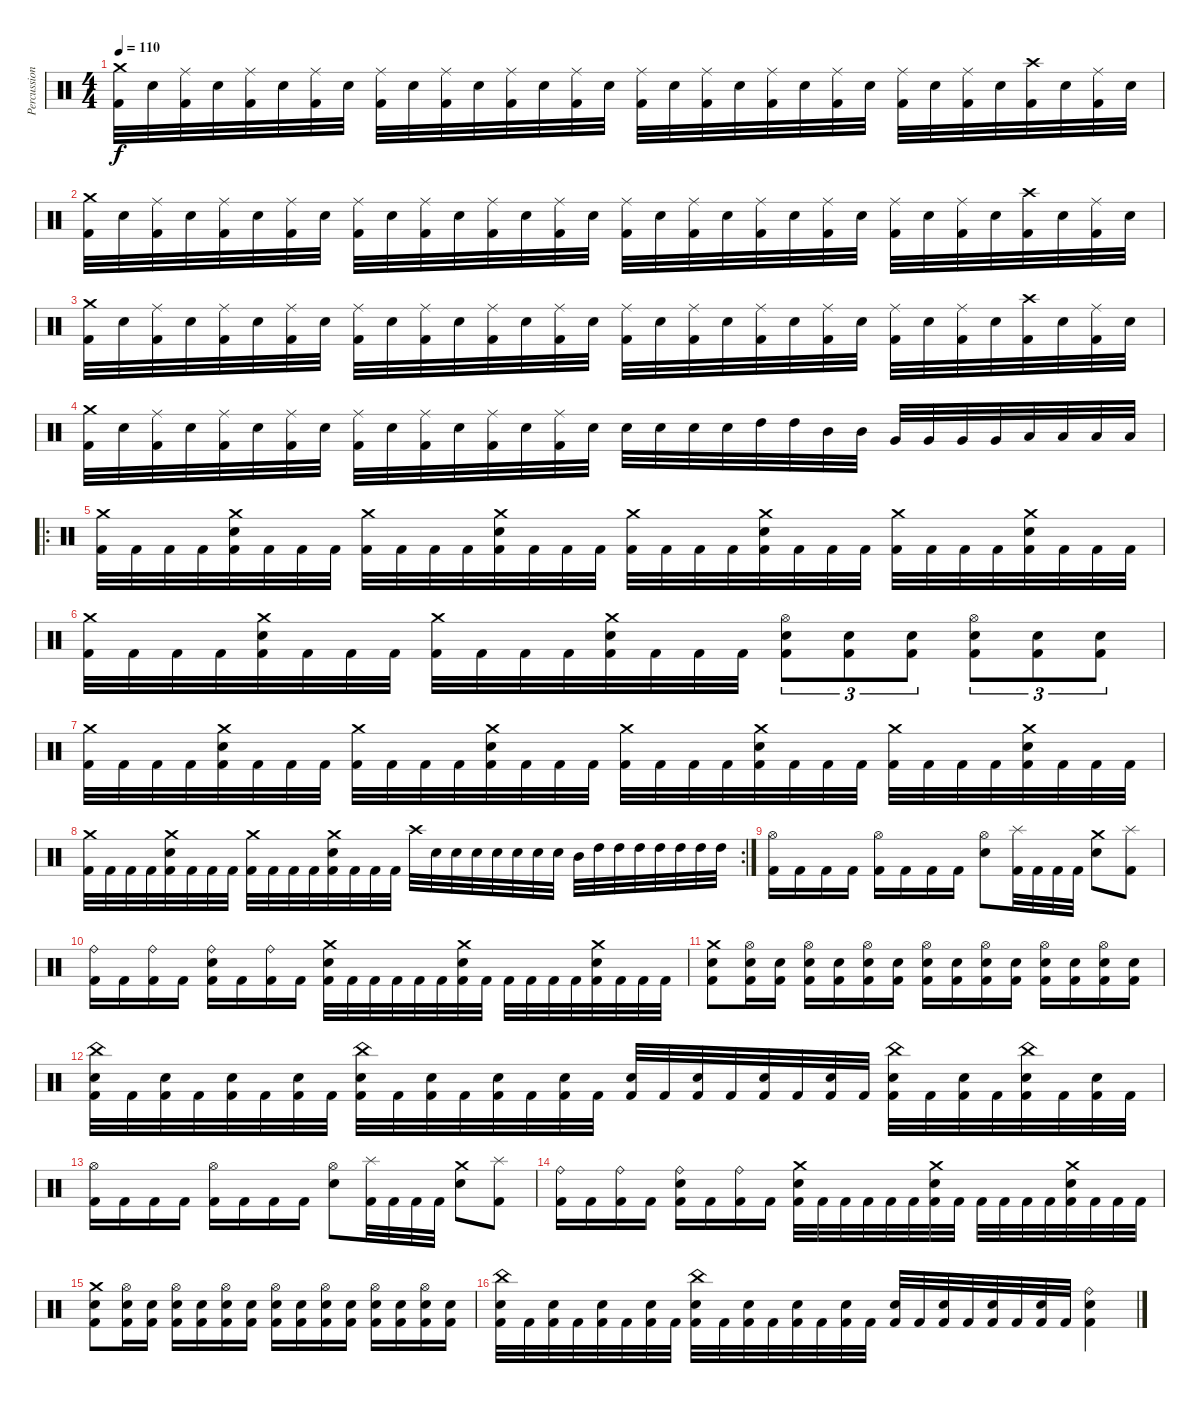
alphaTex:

\track ("Percussion" "Percussion") {instrument percussion}
\staff {score}
\articulation defaults
\ts (4 4)
\tempo 110
\clef neutral
\ks c
("Crash medium (hit)" "Kick (hit) 2").32{dy f} "Electric Snare (hit)".32 ("Ride (middle)" "Kick (hit) 2").32 "Electric Snare (hit)".32 ("Ride (middle)" "Kick (hit) 2").32 "Electric Snare (hit)".32 ("Ride (middle)" "Kick (hit) 2").32 "Electric Snare (hit)".32 ("Ride (middle)" "Kick (hit) 2").32 "Electric Snare (hit)".32 ("Ride (middle)" "Kick (hit) 2").32 "Electric Snare (hit)".32 ("Ride (middle)" "Kick (hit) 2").32 "Electric Snare (hit)".32 ("Ride (middle)" "Kick (hit) 2").32 "Electric Snare (hit)".32 ("Ride (middle)" "Kick (hit) 2").32 "Electric Snare (hit)".32 ("Ride (middle)" "Kick (hit) 2").32 "Electric Snare (hit)".32 ("Ride (middle)" "Kick (hit) 2").32 "Electric Snare (hit)".32 ("Ride (middle)" "Kick (hit) 2").32 "Electric Snare (hit)".32 ("Ride (middle)" "Kick (hit) 2").32 "Electric Snare (hit)".32 ("Ride (middle)" "Kick (hit) 2").32 "Electric Snare (hit)".32 ("Crash high (hit)" "Kick (hit) 2").32 "Electric Snare (hit)".32 ("Ride (middle)" "Kick (hit) 2").32 "Electric Snare (hit)".32 |
("Crash medium (hit)" "Kick (hit) 2").32 "Electric Snare (hit)".32 ("Ride (middle)" "Kick (hit) 2").32 "Electric Snare (hit)".32 ("Ride (middle)" "Kick (hit) 2").32 "Electric Snare (hit)".32 ("Ride (middle)" "Kick (hit) 2").32 "Electric Snare (hit)".32 ("Ride (middle)" "Kick (hit) 2").32 "Electric Snare (hit)".32 ("Ride (middle)" "Kick (hit) 2").32 "Electric Snare (hit)".32 ("Ride (middle)" "Kick (hit) 2").32 "Electric Snare (hit)".32 ("Ride (middle)" "Kick (hit) 2").32 "Electric Snare (hit)".32 ("Ride (middle)" "Kick (hit) 2").32 "Electric Snare (hit)".32 ("Ride (middle)" "Kick (hit) 2").32 "Electric Snare (hit)".32 ("Ride (middle)" "Kick (hit) 2").32 "Electric Snare (hit)".32 ("Ride (middle)" "Kick (hit) 2").32 "Electric Snare (hit)".32 ("Ride (middle)" "Kick (hit) 2").32 "Electric Snare (hit)".32 ("Ride (middle)" "Kick (hit) 2").32 "Electric Snare (hit)".32 ("Crash high (hit)" "Kick (hit) 2").32 "Electric Snare (hit)".32 ("Ride (middle)" "Kick (hit) 2").32 "Electric Snare (hit)".32 |
("Crash medium (hit)" "Kick (hit) 2").32 "Electric Snare (hit)".32 ("Ride (middle)" "Kick (hit) 2").32 "Electric Snare (hit)".32 ("Ride (middle)" "Kick (hit) 2").32 "Electric Snare (hit)".32 ("Ride (middle)" "Kick (hit) 2").32 "Electric Snare (hit)".32 ("Ride (middle)" "Kick (hit) 2").32 "Electric Snare (hit)".32 ("Ride (middle)" "Kick (hit) 2").32 "Electric Snare (hit)".32 ("Ride (middle)" "Kick (hit) 2").32 "Electric Snare (hit)".32 ("Ride (middle)" "Kick (hit) 2").32 "Electric Snare (hit)".32 ("Ride (middle)" "Kick (hit) 2").32 "Electric Snare (hit)".32 ("Ride (middle)" "Kick (hit) 2").32 "Electric Snare (hit)".32 ("Ride (middle)" "Kick (hit) 2").32 "Electric Snare (hit)".32 ("Ride (middle)" "Kick (hit) 2").32 "Electric Snare (hit)".32 ("Ride (middle)" "Kick (hit) 2").32 "Electric Snare (hit)".32 ("Ride (middle)" "Kick (hit) 2").32 "Electric Snare (hit)".32 ("Crash high (hit)" "Kick (hit) 2").32 "Electric Snare (hit)".32 ("Ride (middle)" "Kick (hit) 2").32 "Electric Snare (hit)".32 |
("Crash medium (hit)" "Kick (hit) 2").32 "Electric Snare (hit)".32 ("Ride (middle)" "Kick (hit) 2").32 "Electric Snare (hit)".32 ("Ride (middle)" "Kick (hit) 2").32 "Electric Snare (hit)".32 ("Ride (middle)" "Kick (hit) 2").32 "Electric Snare (hit)".32 ("Ride (middle)" "Kick (hit) 2").32 "Electric Snare (hit)".32 ("Ride (middle)" "Kick (hit) 2").32 "Electric Snare (hit)".32 ("Ride (middle)" "Kick (hit) 2").32 "Electric Snare (hit)".32 ("Ride (middle)" "Kick (hit) 2").32 "Electric Snare (hit)".32 "Electric Snare (hit)".32 "Electric Snare (hit)".32 "Electric Snare (hit)".32 "Electric Snare (hit)".32 "High Tom (hit)".32 "High Tom (hit)".32 "Mid Tom (hit)".32 "Mid Tom (hit)".32 "Very Low Tom (hit)".32 "Very Low Tom (hit)".32 "Very Low Tom (hit)".32 "Very Low Tom (hit)".32 "Low Floor Tom (hit)".32 "Low Floor Tom (hit)".32 "Low Floor Tom (hit)".32 "Low Floor Tom (hit)".32 |
\ro
("Crash medium (hit)" "Kick (hit) 2").32 "Kick (hit) 2".32 "Kick (hit) 2".32 "Kick (hit) 2".32 ("Crash medium (hit)" "Electric Snare (hit)" "Kick (hit) 2").32 "Kick (hit) 2".32 "Kick (hit) 2".32 "Kick (hit) 2".32 ("Crash medium (hit)" "Kick (hit) 2").32 "Kick (hit) 2".32 "Kick (hit) 2".32 "Kick (hit) 2".32 ("Crash medium (hit)" "Electric Snare (hit)" "Kick (hit) 2").32 "Kick (hit) 2".32 "Kick (hit) 2".32 "Kick (hit) 2".32 ("Crash medium (hit)" "Kick (hit) 2").32 "Kick (hit) 2".32 "Kick (hit) 2".32 "Kick (hit) 2".32 ("Crash medium (hit)" "Electric Snare (hit)" "Kick (hit) 2").32 "Kick (hit) 2".32 "Kick (hit) 2".32 "Kick (hit) 2".32 ("Crash medium (hit)" "Kick (hit) 2").32 "Kick (hit) 2".32 "Kick (hit) 2".32 "Kick (hit) 2".32 ("Crash medium (hit)" "Electric Snare (hit)" "Kick (hit) 2").32 "Kick (hit) 2".32 "Kick (hit) 2".32 "Kick (hit) 2".32 |
("Crash medium (hit)" "Kick (hit) 2").32 "Kick (hit) 2".32 "Kick (hit) 2".32 "Kick (hit) 2".32 ("Crash medium (hit)" "Electric Snare (hit)" "Kick (hit) 2").32 "Kick (hit) 2".32 "Kick (hit) 2".32 "Kick (hit) 2".32 ("Crash medium (hit)" "Kick (hit) 2").32 "Kick (hit) 2".32 "Kick (hit) 2".32 "Kick (hit) 2".32 ("Crash medium (hit)" "Electric Snare (hit)" "Kick (hit) 2").32 "Kick (hit) 2".32 "Kick (hit) 2".32 "Kick (hit) 2".32 ("Hi-Hat (open)" "Electric Snare (hit)" "Kick (hit) 2").8{tu (3 2)} ("Electric Snare (hit)" "Kick (hit) 2").8{tu (3 2)} ("Electric Snare (hit)" "Kick (hit) 2").8{tu (3 2)} ("Hi-Hat (open)" "Electric Snare (hit)" "Kick (hit) 2").8{tu (3 2)} ("Electric Snare (hit)" "Kick (hit) 2").8{tu (3 2)} ("Electric Snare (hit)" "Kick (hit) 2").8{tu (3 2)} |
("Crash medium (hit)" "Kick (hit) 2").32 "Kick (hit) 2".32 "Kick (hit) 2".32 "Kick (hit) 2".32 ("Crash medium (hit)" "Electric Snare (hit)" "Kick (hit) 2").32 "Kick (hit) 2".32 "Kick (hit) 2".32 "Kick (hit) 2".32 ("Crash medium (hit)" "Kick (hit) 2").32 "Kick (hit) 2".32 "Kick (hit) 2".32 "Kick (hit) 2".32 ("Crash medium (hit)" "Electric Snare (hit)" "Kick (hit) 2").32 "Kick (hit) 2".32 "Kick (hit) 2".32 "Kick (hit) 2".32 ("Crash medium (hit)" "Kick (hit) 2").32 "Kick (hit) 2".32 "Kick (hit) 2".32 "Kick (hit) 2".32 ("Crash medium (hit)" "Electric Snare (hit)" "Kick (hit) 2").32 "Kick (hit) 2".32 "Kick (hit) 2".32 "Kick (hit) 2".32 ("Crash medium (hit)" "Kick (hit) 2").32 "Kick (hit) 2".32 "Kick (hit) 2".32 "Kick (hit) 2".32 ("Crash medium (hit)" "Electric Snare (hit)" "Kick (hit) 2").32 "Kick (hit) 2".32 "Kick (hit) 2".32 "Kick (hit) 2".32 |
\rc 2
("Crash medium (hit)" "Kick (hit) 2").32 "Kick (hit) 2".32 "Kick (hit) 2".32 "Kick (hit) 2".32 ("Crash medium (hit)" "Electric Snare (hit)" "Kick (hit) 2").32 "Kick (hit) 2".32 "Kick (hit) 2".32 "Kick (hit) 2".32 ("Crash medium (hit)" "Kick (hit) 2").32 "Kick (hit) 2".32 "Kick (hit) 2".32 "Kick (hit) 2".32 ("Crash medium (hit)" "Electric Snare (hit)" "Kick (hit) 2").32 "Kick (hit) 2".32 "Kick (hit) 2".32 "Kick (hit) 2".32 "Crash high (hit)".32 "Electric Snare (hit)".32 "Electric Snare (hit)".32 "Electric Snare (hit)".32 "Electric Snare (hit)".32 "Electric Snare (hit)".32 "Electric Snare (hit)".32 "Electric Snare (hit)".32 "Mid Tom (hit)".32 "High Tom (hit)".32 "High Tom (hit)".32 "High Tom (hit)".32 "High Tom (hit)".32 "High Tom (hit)".32 "High Tom (hit)".32 "High Tom (hit)".32 |
("Hi-Hat (open)" "Kick (hit) 2").16 "Kick (hit) 2".16 "Kick (hit) 2".16 "Kick (hit) 2".16 ("Hi-Hat (open)" "Kick (hit) 2").16 "Kick (hit) 2".16 "Kick (hit) 2".16 "Kick (hit) 2".16 ("Hi-Hat (open)" "Electric Snare (hit)").8 ("Splash (hit)" "Kick (hit) 2").32 "Kick (hit) 2".32 "Kick (hit) 2".32 "Kick (hit) 2".32 ("Crash medium (hit)" "Electric Snare (hit)").8 ("Splash (hit)" "Kick (hit) 2").8 |
("Ride (bell)" "Kick (hit) 2").16 "Kick (hit) 2".16 ("Ride (bell)" "Kick (hit) 2").16 "Kick (hit) 2".16 ("Ride (bell)" "Electric Snare (hit)" "Kick (hit) 2").16 "Kick (hit) 2".16 ("Ride (bell)" "Kick (hit) 2").16 "Kick (hit) 2".16 ("Crash medium (hit)" "Electric Snare (hit)" "Kick (hit) 2").32 "Kick (hit) 2".32 "Kick (hit) 2".32 "Kick (hit) 2".32 "Kick (hit) 2".32 "Kick (hit) 2".32 ("Crash medium (hit)" "Electric Snare (hit)" "Kick (hit) 2").32 "Kick (hit) 2".32 "Kick (hit) 2".32 "Kick (hit) 2".32 "Kick (hit) 2".32 "Kick (hit) 2".32 ("Crash medium (hit)" "Electric Snare (hit)" "Kick (hit) 2").32 "Kick (hit) 2".32 "Kick (hit) 2".32 "Kick (hit) 2".32 |
("Crash medium (hit)" "Electric Snare (hit)" "Kick (hit) 2").8 ("Hi-Hat (open)" "Kick (hit) 2" "Electric Snare (hit)").16 ("Kick (hit) 2" "Electric Snare (hit)").16 ("Hi-Hat (open)" "Kick (hit) 2" "Electric Snare (hit)").16 ("Kick (hit) 2" "Electric Snare (hit)").16 ("Hi-Hat (open)" "Kick (hit) 2" "Electric Snare (hit)").16 ("Kick (hit) 2" "Electric Snare (hit)").16 ("Hi-Hat (open)" "Kick (hit) 2" "Electric Snare (hit)").16 ("Kick (hit) 2" "Electric Snare (hit)").16 ("Hi-Hat (open)" "Kick (hit) 2" "Electric Snare (hit)").16 ("Kick (hit) 2" "Electric Snare (hit)").16 ("Hi-Hat (open)" "Kick (hit) 2" "Electric Snare (hit)").16 ("Kick (hit) 2" "Electric Snare (hit)").16 ("Hi-Hat (open)" "Kick (hit) 2" "Electric Snare (hit)").16 ("Kick (hit) 2" "Electric Snare (hit)").16 |
("China (hit)" "Electric Snare (hit)" "Kick (hit) 2").32 "Kick (hit) 2".32 ("Electric Snare (hit)" "Kick (hit) 2").32 "Kick (hit) 2".32 ("Electric Snare (hit)" "Kick (hit) 2").32 "Kick (hit) 2".32 ("Electric Snare (hit)" "Kick (hit) 2").32 "Kick (hit) 2".32 ("China (hit)" "Electric Snare (hit)" "Kick (hit) 2").32 "Kick (hit) 2".32 ("Electric Snare (hit)" "Kick (hit) 2").32 "Kick (hit) 2".32 ("Electric Snare (hit)" "Kick (hit) 2").32 "Kick (hit) 2".32 ("Electric Snare (hit)" "Kick (hit) 2").32 "Kick (hit) 2".32 ("Electric Snare (hit)" "Kick (hit) 2").32 "Kick (hit) 2".32 ("Electric Snare (hit)" "Kick (hit) 2").32 "Kick (hit) 2".32 ("Electric Snare (hit)" "Kick (hit) 2").32 "Kick (hit) 2".32 ("Electric Snare (hit)" "Kick (hit) 2").32 "Kick (hit) 2".32 ("China (hit)" "Electric Snare (hit)" "Kick (hit) 2").32 "Kick (hit) 2".32 ("Electric Snare (hit)" "Kick (hit) 2").32 "Kick (hit) 2".32 ("China (hit)" "Electric Snare (hit)" "Kick (hit) 2").32 "Kick (hit) 2".32 ("Electric Snare (hit)" "Kick (hit) 2").32 "Kick (hit) 2".32 |
("Hi-Hat (open)" "Kick (hit) 2").16 "Kick (hit) 2".16 "Kick (hit) 2".16 "Kick (hit) 2".16 ("Hi-Hat (open)" "Kick (hit) 2").16 "Kick (hit) 2".16 "Kick (hit) 2".16 "Kick (hit) 2".16 ("Hi-Hat (open)" "Electric Snare (hit)").8 ("Splash (hit)" "Kick (hit) 2").32 "Kick (hit) 2".32 "Kick (hit) 2".32 "Kick (hit) 2".32 ("Crash medium (hit)" "Electric Snare (hit)").8 ("Splash (hit)" "Kick (hit) 2").8 |
("Ride (bell)" "Kick (hit) 2").16 "Kick (hit) 2".16 ("Ride (bell)" "Kick (hit) 2").16 "Kick (hit) 2".16 ("Ride (bell)" "Electric Snare (hit)" "Kick (hit) 2").16 "Kick (hit) 2".16 ("Ride (bell)" "Kick (hit) 2").16 "Kick (hit) 2".16 ("Crash medium (hit)" "Electric Snare (hit)" "Kick (hit) 2").32 "Kick (hit) 2".32 "Kick (hit) 2".32 "Kick (hit) 2".32 "Kick (hit) 2".32 "Kick (hit) 2".32 ("Crash medium (hit)" "Electric Snare (hit)" "Kick (hit) 2").32 "Kick (hit) 2".32 "Kick (hit) 2".32 "Kick (hit) 2".32 "Kick (hit) 2".32 "Kick (hit) 2".32 ("Crash medium (hit)" "Electric Snare (hit)" "Kick (hit) 2").32 "Kick (hit) 2".32 "Kick (hit) 2".32 "Kick (hit) 2".32 |
("Crash medium (hit)" "Electric Snare (hit)" "Kick (hit) 2").8 ("Hi-Hat (open)" "Kick (hit) 2" "Electric Snare (hit)").16 ("Kick (hit) 2" "Electric Snare (hit)").16 ("Hi-Hat (open)" "Kick (hit) 2" "Electric Snare (hit)").16 ("Kick (hit) 2" "Electric Snare (hit)").16 ("Hi-Hat (open)" "Kick (hit) 2" "Electric Snare (hit)").16 ("Kick (hit) 2" "Electric Snare (hit)").16 ("Hi-Hat (open)" "Kick (hit) 2" "Electric Snare (hit)").16 ("Kick (hit) 2" "Electric Snare (hit)").16 ("Hi-Hat (open)" "Kick (hit) 2" "Electric Snare (hit)").16 ("Kick (hit) 2" "Electric Snare (hit)").16 ("Hi-Hat (open)" "Kick (hit) 2" "Electric Snare (hit)").16 ("Kick (hit) 2" "Electric Snare (hit)").16 ("Hi-Hat (open)" "Kick (hit) 2" "Electric Snare (hit)").16 ("Kick (hit) 2" "Electric Snare (hit)").16 |
("China (hit)" "Electric Snare (hit)" "Kick (hit) 2").32 "Kick (hit) 2".32 ("Electric Snare (hit)" "Kick (hit) 2").32 "Kick (hit) 2".32 ("Electric Snare (hit)" "Kick (hit) 2").32 "Kick (hit) 2".32 ("Electric Snare (hit)" "Kick (hit) 2").32 "Kick (hit) 2".32 ("China (hit)" "Electric Snare (hit)" "Kick (hit) 2").32 "Kick (hit) 2".32 ("Electric Snare (hit)" "Kick (hit) 2").32 "Kick (hit) 2".32 ("Electric Snare (hit)" "Kick (hit) 2").32 "Kick (hit) 2".32 ("Electric Snare (hit)" "Kick (hit) 2").32 "Kick (hit) 2".32 ("Electric Snare (hit)" "Kick (hit) 2").32 "Kick (hit) 2".32 ("Electric Snare (hit)" "Kick (hit) 2").32 "Kick (hit) 2".32 ("Electric Snare (hit)" "Kick (hit) 2").32 "Kick (hit) 2".32 ("Electric Snare (hit)" "Kick (hit) 2").32 "Kick (hit) 2".32 ("Ride (bell)" "Kick (hit) 2" "Electric Snare (hit)").4
